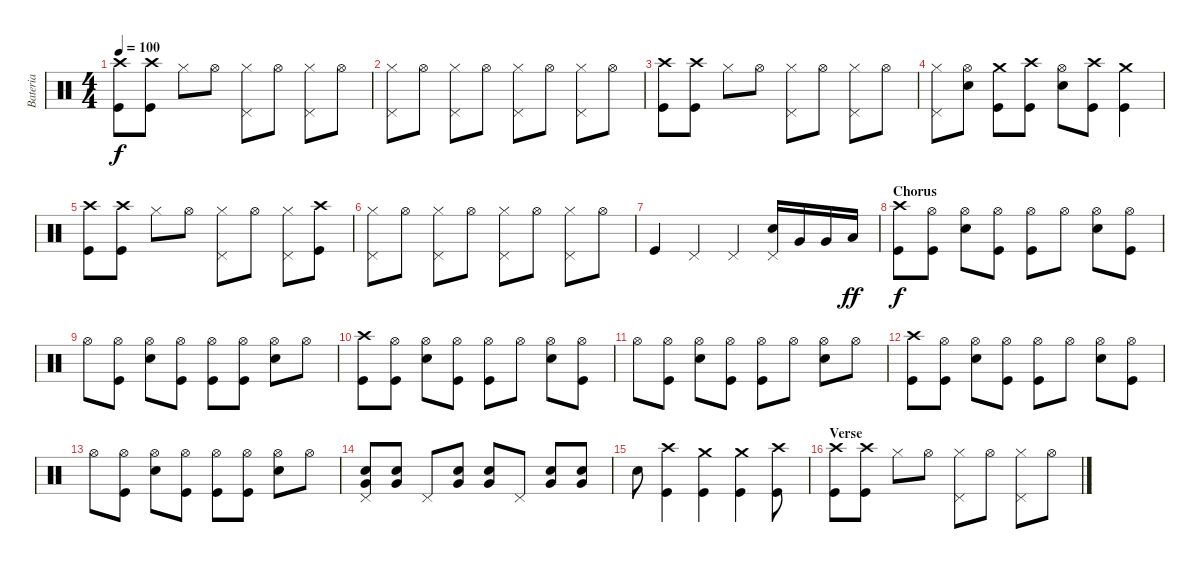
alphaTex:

\track ("Bateria" "Bateria") {instrument percussion}
\staff {score}
\articulation defaults
\ts (4 4)
\tempo 100
\clef neutral
\ks c
("Crash high (hit)" "Kick (hit)").8{dy f} ("Crash high (hit)" "Kick (hit)").8 "Hi-Hat (closed)".8 "Hi-Hat (open)".8 ("Hi-Hat (closed)" "Pedal Hi-Hat (hit)").8 "Hi-Hat (open)".8 ("Hi-Hat (closed)" "Pedal Hi-Hat (hit)").8 "Hi-Hat (open)".8 |
("Hi-Hat (closed)" "Pedal Hi-Hat (hit)").8 "Hi-Hat (open)".8 ("Hi-Hat (closed)" "Pedal Hi-Hat (hit)").8 "Hi-Hat (open)".8 ("Hi-Hat (closed)" "Pedal Hi-Hat (hit)").8 "Hi-Hat (open)".8 ("Hi-Hat (closed)" "Pedal Hi-Hat (hit)").8 "Hi-Hat (open)".8 |
("Crash high (hit)" "Kick (hit)").8 ("Crash high (hit)" "Kick (hit)").8 "Hi-Hat (closed)".8 "Hi-Hat (open)".8 ("Hi-Hat (closed)" "Pedal Hi-Hat (hit)").8 "Hi-Hat (open)".8 ("Hi-Hat (closed)" "Pedal Hi-Hat (hit)").8 "Hi-Hat (open)".8 |
("Hi-Hat (closed)" "Pedal Hi-Hat (hit)").8 ("Hi-Hat (open)" "Electric Snare (hit)").8 ("Crash medium (hit)" "Kick (hit)").8 ("Crash high (hit)" "Kick (hit)").8 ("Hi-Hat (open)" "Electric Snare (hit)").8 ("Crash high (hit)" "Kick (hit)").8 ("Crash medium (hit)" "Kick (hit)").4 |
("Crash high (hit)" "Kick (hit)").8 ("Crash high (hit)" "Kick (hit)").8 "Hi-Hat (closed)".8 "Hi-Hat (open)".8 ("Hi-Hat (closed)" "Pedal Hi-Hat (hit)").8 "Hi-Hat (open)".8 ("Hi-Hat (closed)" "Pedal Hi-Hat (hit)").8 ("Crash high (hit)" "Kick (hit)").8 |
("Hi-Hat (closed)" "Pedal Hi-Hat (hit)").8 "Hi-Hat (open)".8 ("Hi-Hat (closed)" "Pedal Hi-Hat (hit)").8 "Hi-Hat (open)".8 ("Hi-Hat (closed)" "Pedal Hi-Hat (hit)").8 "Hi-Hat (open)".8 ("Hi-Hat (closed)" "Pedal Hi-Hat (hit)").8 "Hi-Hat (open)".8 |
"Kick (hit)".4 "Pedal Hi-Hat (hit)".4 "Pedal Hi-Hat (hit)".4 ("Electric Snare (hit)" "Pedal Hi-Hat (hit)").16 "Very Low Tom (hit)".16 "Very Low Tom (hit)".16 "Low Floor Tom (hit)".16{dy ff} |
\section ("" "Chorus")
("Crash high (hit)" "Kick (hit)").8{dy f} ("Hi-Hat (open)" "Kick (hit)").8 ("Hi-Hat (open)" "Electric Snare (hit)").8 ("Hi-Hat (open)" "Kick (hit)").8 ("Hi-Hat (open)" "Kick (hit)").8 "Hi-Hat (open)".8 ("Hi-Hat (open)" "Electric Snare (hit)").8 ("Hi-Hat (open)" "Kick (hit)").8 |
"Hi-Hat (open)".8 ("Hi-Hat (open)" "Kick (hit)").8 ("Hi-Hat (open)" "Electric Snare (hit)").8 ("Hi-Hat (open)" "Kick (hit)").8 ("Hi-Hat (open)" "Kick (hit)").8 ("Hi-Hat (open)" "Kick (hit)").8 ("Hi-Hat (open)" "Electric Snare (hit)").8 "Hi-Hat (open)".8 |
("Crash high (hit)" "Kick (hit)").8 ("Hi-Hat (open)" "Kick (hit)").8 ("Hi-Hat (open)" "Electric Snare (hit)").8 ("Hi-Hat (open)" "Kick (hit)").8 ("Hi-Hat (open)" "Kick (hit)").8 "Hi-Hat (open)".8 ("Hi-Hat (open)" "Electric Snare (hit)").8 ("Hi-Hat (open)" "Kick (hit)").8 |
"Hi-Hat (open)".8 ("Hi-Hat (open)" "Kick (hit)").8 ("Hi-Hat (open)" "Electric Snare (hit)").8 ("Hi-Hat (open)" "Kick (hit)").8 ("Hi-Hat (open)" "Kick (hit)").8 "Hi-Hat (open)".8 ("Hi-Hat (open)" "Electric Snare (hit)").8 "Hi-Hat (open)".8 |
("Crash high (hit)" "Kick (hit)").8 ("Hi-Hat (open)" "Kick (hit)").8 ("Hi-Hat (open)" "Electric Snare (hit)").8 ("Hi-Hat (open)" "Kick (hit)").8 ("Hi-Hat (open)" "Kick (hit)").8 "Hi-Hat (open)".8 ("Hi-Hat (open)" "Electric Snare (hit)").8 ("Hi-Hat (open)" "Kick (hit)").8 |
"Hi-Hat (open)".8 ("Hi-Hat (open)" "Kick (hit)").8 ("Hi-Hat (open)" "Electric Snare (hit)").8 ("Hi-Hat (open)" "Kick (hit)").8 ("Hi-Hat (open)" "Kick (hit)").8 ("Hi-Hat (open)" "Kick (hit)").8 ("Hi-Hat (open)" "Electric Snare (hit)").8 "Hi-Hat (open)".8 |
("Very Low Tom (hit)" "Electric Snare (hit)" "Pedal Hi-Hat (hit)").8 ("Very Low Tom (hit)" "Electric Snare (hit)").8 "Pedal Hi-Hat (hit)".8 ("Very Low Tom (hit)" "Electric Snare (hit)").8 ("Very Low Tom (hit)" "Electric Snare (hit)").8 "Pedal Hi-Hat (hit)".8 ("Very Low Tom (hit)" "Electric Snare (hit)").8 ("Very Low Tom (hit)" "Electric Snare (hit)").8 |
"Electric Snare (hit)".8 ("Crash high (hit)" "Kick (hit)").4 ("Crash medium (hit)" "Kick (hit)").4 ("Crash medium (hit)" "Kick (hit)").4 ("Crash high (hit)" "Kick (hit)").8 |
\section ("" "Verse")
("Crash high (hit)" "Kick (hit)").8 ("Crash high (hit)" "Kick (hit)").8 "Hi-Hat (closed)".8 "Hi-Hat (open)".8 ("Hi-Hat (closed)" "Pedal Hi-Hat (hit)").8 "Hi-Hat (open)".8 ("Hi-Hat (closed)" "Pedal Hi-Hat (hit)").8 "Hi-Hat (open)".8
